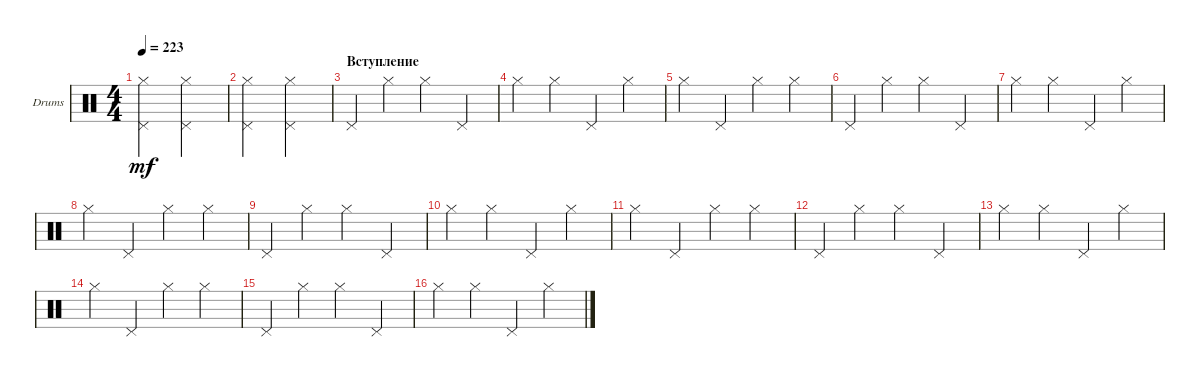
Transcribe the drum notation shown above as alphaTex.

\defaultSystemsLayout 4
\bracketExtendMode groupsimilarinstruments
\firstSystemTrackNameOrientation horizontal
\otherSystemsTrackNameOrientation horizontal
\track ("Drumkit" "Drums") {instrument percussion}
\staff {score}
\articulation defaults
\ts (4 4)
\tempo 223
\clef neutral
\ks c
("Pedal Hi-Hat (hit)" "Hi-Hat (closed)").2{dy mf} ("Pedal Hi-Hat (hit)" "Hi-Hat (closed)").2 |
("Pedal Hi-Hat (hit)" "Hi-Hat (closed)").2 ("Pedal Hi-Hat (hit)" "Hi-Hat (closed)").2 |
\section ("" "Вступление")
"Pedal Hi-Hat (hit)".4 "Hi-Hat (closed)".4 "Hi-Hat (closed)".4 "Pedal Hi-Hat (hit)".4 |
"Hi-Hat (closed)".4 "Hi-Hat (closed)".4 "Pedal Hi-Hat (hit)".4 "Hi-Hat (closed)".4 |
"Hi-Hat (closed)".4 "Pedal Hi-Hat (hit)".4 "Hi-Hat (closed)".4 "Hi-Hat (closed)".4 |
"Pedal Hi-Hat (hit)".4 "Hi-Hat (closed)".4 "Hi-Hat (closed)".4 "Pedal Hi-Hat (hit)".4 |
"Hi-Hat (closed)".4 "Hi-Hat (closed)".4 "Pedal Hi-Hat (hit)".4 "Hi-Hat (closed)".4 |
"Hi-Hat (closed)".4 "Pedal Hi-Hat (hit)".4 "Hi-Hat (closed)".4 "Hi-Hat (closed)".4 |
"Pedal Hi-Hat (hit)".4 "Hi-Hat (closed)".4 "Hi-Hat (closed)".4 "Pedal Hi-Hat (hit)".4 |
"Hi-Hat (closed)".4 "Hi-Hat (closed)".4 "Pedal Hi-Hat (hit)".4 "Hi-Hat (closed)".4 |
"Hi-Hat (closed)".4 "Pedal Hi-Hat (hit)".4 "Hi-Hat (closed)".4 "Hi-Hat (closed)".4 |
"Pedal Hi-Hat (hit)".4 "Hi-Hat (closed)".4 "Hi-Hat (closed)".4 "Pedal Hi-Hat (hit)".4 |
"Hi-Hat (closed)".4 "Hi-Hat (closed)".4 "Pedal Hi-Hat (hit)".4 "Hi-Hat (closed)".4 |
"Hi-Hat (closed)".4 "Pedal Hi-Hat (hit)".4 "Hi-Hat (closed)".4 "Hi-Hat (closed)".4 |
"Pedal Hi-Hat (hit)".4 "Hi-Hat (closed)".4 "Hi-Hat (closed)".4 "Pedal Hi-Hat (hit)".4 |
"Hi-Hat (closed)".4 "Hi-Hat (closed)".4 "Pedal Hi-Hat (hit)".4 "Hi-Hat (closed)".4
